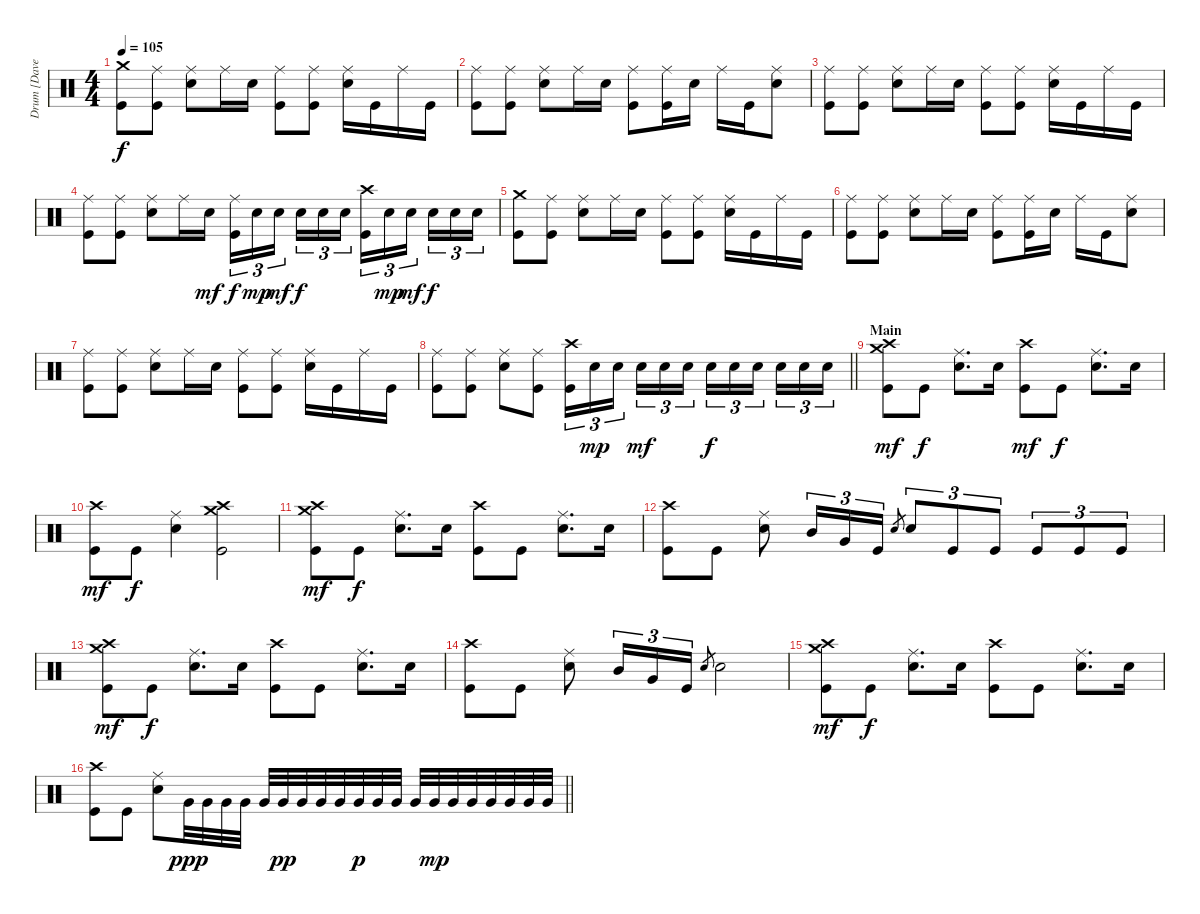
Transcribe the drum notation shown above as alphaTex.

\track ("Drum [Dave Grohl]" "Drum [Dave") {instrument percussion bank 84}
\staff {score}
\articulation defaults
\ts (4 4)
\tempo 105
\clef neutral
\ks c
("Crash medium (hit)" "Kick (hit)").8{dy f} ("Ride (middle)" "Kick (hit)").8 ("Ride (middle)" "Electric Snare (hit)").8 "Ride (middle)".16 "Electric Snare (hit)".16 ("Ride (middle)" "Kick (hit)").8 ("Ride (middle)" "Kick (hit)").8 ("Ride (middle)" "Electric Snare (hit)").16 "Kick (hit)".16 "Ride (middle)".16 "Kick (hit)".16 |
("Ride (middle)" "Kick (hit)").8 ("Ride (middle)" "Kick (hit)").8 ("Ride (middle)" "Electric Snare (hit)").8 "Ride (middle)".16 "Electric Snare (hit)".16 ("Ride (middle)" "Kick (hit)").8 ("Ride (middle)" "Kick (hit)").16 "Electric Snare (hit)".16 "Ride (middle)".16 "Kick (hit)".16 ("Ride (middle)" "Electric Snare (hit)").8 |
("Ride (middle)" "Kick (hit)").8 ("Ride (middle)" "Kick (hit)").8 ("Ride (middle)" "Electric Snare (hit)").8 "Ride (middle)".16 "Electric Snare (hit)".16 ("Ride (middle)" "Kick (hit)").8 ("Ride (middle)" "Kick (hit)").8 ("Ride (middle)" "Electric Snare (hit)").16 "Kick (hit)".16 "Ride (middle)".16 "Kick (hit)".16 |
("Ride (middle)" "Kick (hit)").8 ("Ride (middle)" "Kick (hit)").8 ("Ride (middle)" "Electric Snare (hit)").8 "Ride (middle)".16 "Electric Snare (hit)".16{dy mf} ("Ride (middle)" "Kick (hit)").16{tu (3 2) dy f} "Electric Snare (hit)".16{tu (3 2) dy mp} "Electric Snare (hit)".16{tu (3 2) dy mf beam splitsecondary} "Electric Snare (hit)".16{tu (3 2) dy f} "Electric Snare (hit)".16{tu (3 2)} "Electric Snare (hit)".16{tu (3 2)} ("Crash high (hit)" "Kick (hit)").16{tu (3 2)} "Electric Snare (hit)".16{tu (3 2) dy mp} "Electric Snare (hit)".16{tu (3 2) dy mf beam splitsecondary} "Electric Snare (hit)".16{tu (3 2) dy f} "Electric Snare (hit)".16{tu (3 2)} "Electric Snare (hit)".16{tu (3 2)} |
("Crash medium (hit)" "Kick (hit)").8 ("Ride (middle)" "Kick (hit)").8 ("Ride (middle)" "Electric Snare (hit)").8 "Ride (middle)".16 "Electric Snare (hit)".16 ("Ride (middle)" "Kick (hit)").8 ("Ride (middle)" "Kick (hit)").8 ("Ride (middle)" "Electric Snare (hit)").16 "Kick (hit)".16 "Ride (middle)".16 "Kick (hit)".16 |
("Ride (middle)" "Kick (hit)").8 ("Ride (middle)" "Kick (hit)").8 ("Ride (middle)" "Electric Snare (hit)").8 "Ride (middle)".16 "Electric Snare (hit)".16 ("Ride (middle)" "Kick (hit)").8 ("Ride (middle)" "Kick (hit)").16 "Electric Snare (hit)".16 "Ride (middle)".16 "Kick (hit)".16 ("Ride (middle)" "Electric Snare (hit)").8 |
("Ride (middle)" "Kick (hit)").8 ("Ride (middle)" "Kick (hit)").8 ("Ride (middle)" "Electric Snare (hit)").8 "Ride (middle)".16 "Electric Snare (hit)".16 ("Ride (middle)" "Kick (hit)").8 ("Ride (middle)" "Kick (hit)").8 ("Ride (middle)" "Electric Snare (hit)").16 "Kick (hit)".16 "Ride (middle)".16 "Kick (hit)".16 |
\barLineRight lightlight
("Ride (middle)" "Kick (hit)").8 ("Ride (middle)" "Kick (hit)").8 ("Ride (middle)" "Electric Snare (hit)").8 ("Ride (middle)" "Kick (hit)").8 ("Crash high (hit)" "Kick (hit)").16{tu (3 2)} "Electric Snare (hit)".16{tu (3 2) dy mp} "Electric Snare (hit)".16{tu (3 2) beam splitsecondary} "Electric Snare (hit)".16{tu (3 2) dy mf} "Electric Snare (hit)".16{tu (3 2)} "Electric Snare (hit)".16{tu (3 2)} "Electric Snare (hit)".16{tu (3 2) dy f} "Electric Snare (hit)".16{tu (3 2)} "Electric Snare (hit)".16{tu (3 2) beam splitsecondary} "Electric Snare (hit)".16{tu (3 2)} "Electric Snare (hit)".16{tu (3 2)} "Electric Snare (hit)".16{tu (3 2)} |
\section ("" "Main")
("Crash high (hit)" "Crash medium (hit)" "Kick (hit)").8{dy mf} "Kick (hit)".8{dy f} ("Ride (middle)" "Electric Snare (hit)").8{d} "Electric Snare (hit)".16 ("Crash high (hit)" "Kick (hit)").8{dy mf} "Kick (hit)".8{dy f} ("Ride (middle)" "Electric Snare (hit)").8{d} "Electric Snare (hit)".16 |
("Crash high (hit)" "Kick (hit)").8{dy mf} "Kick (hit)".8{dy f} ("Ride (middle)" "Electric Snare (hit)").4 ("Crash high (hit)" "Crash medium (hit)" "Kick (hit)").2 |
("Crash high (hit)" "Crash medium (hit)" "Kick (hit)").8{dy mf} "Kick (hit)".8{dy f} ("Ride (middle)" "Electric Snare (hit)").8{d} "Electric Snare (hit)".16 ("Crash high (hit)" "Kick (hit)").8 "Kick (hit)".8 ("Ride (middle)" "Electric Snare (hit)").8{d} "Electric Snare (hit)".16 |
("Crash high (hit)" "Kick (hit)").8 "Kick (hit)".8 ("Ride (middle)" "Electric Snare (hit)").8 "Mid Tom (hit)".16{tu (3 2)} "Very Low Tom (hit)".16{tu (3 2)} "Kick (hit)".16{tu (3 2)} "Electric Snare (hit)".8{gr} "Electric Snare (hit)".8{tu (3 2)} "Kick (hit)".8{tu (3 2)} "Kick (hit)".8{tu (3 2)} "Kick (hit)".8{tu (3 2)} "Kick (hit)".8{tu (3 2)} "Kick (hit)".8{tu (3 2)} |
("Crash high (hit)" "Crash medium (hit)" "Kick (hit)").8{dy mf} "Kick (hit)".8{dy f} ("Ride (middle)" "Electric Snare (hit)").8{d} "Electric Snare (hit)".16 ("Crash high (hit)" "Kick (hit)").8 "Kick (hit)".8 ("Ride (middle)" "Electric Snare (hit)").8{d} "Electric Snare (hit)".16 |
("Crash high (hit)" "Kick (hit)").8 "Kick (hit)".8 ("Ride (middle)" "Electric Snare (hit)").8 "Mid Tom (hit)".16{tu (3 2)} "Very Low Tom (hit)".16{tu (3 2)} "Kick (hit)".16{tu (3 2)} "Electric Snare (hit)".8{gr} "Electric Snare (hit)".2 |
("Crash high (hit)" "Crash medium (hit)" "Kick (hit)").8{dy mf} "Kick (hit)".8{dy f} ("Ride (middle)" "Electric Snare (hit)").8{d} "Electric Snare (hit)".16 ("Crash high (hit)" "Kick (hit)").8 "Kick (hit)".8 ("Ride (middle)" "Electric Snare (hit)").8{d} "Electric Snare (hit)".16 |
\barLineRight lightlight
("Crash high (hit)" "Kick (hit)").8 "Kick (hit)".8 ("Ride (middle)" "Electric Snare (hit)").8 "Very Low Tom (hit)".32{dy ppp} "Very Low Tom (hit)".32 "Very Low Tom (hit)".32 "Very Low Tom (hit)".32 "Very Low Tom (hit)".32 "Very Low Tom (hit)".32{dy pp} "Very Low Tom (hit)".32 "Very Low Tom (hit)".32 "Very Low Tom (hit)".32 "Very Low Tom (hit)".32{dy p} "Very Low Tom (hit)".32 "Very Low Tom (hit)".32 "Very Low Tom (hit)".32 "Very Low Tom (hit)".32{dy mp} "Very Low Tom (hit)".32 "Very Low Tom (hit)".32 "Very Low Tom (hit)".32 "Very Low Tom (hit)".32 "Very Low Tom (hit)".32 "Very Low Tom (hit)".32
